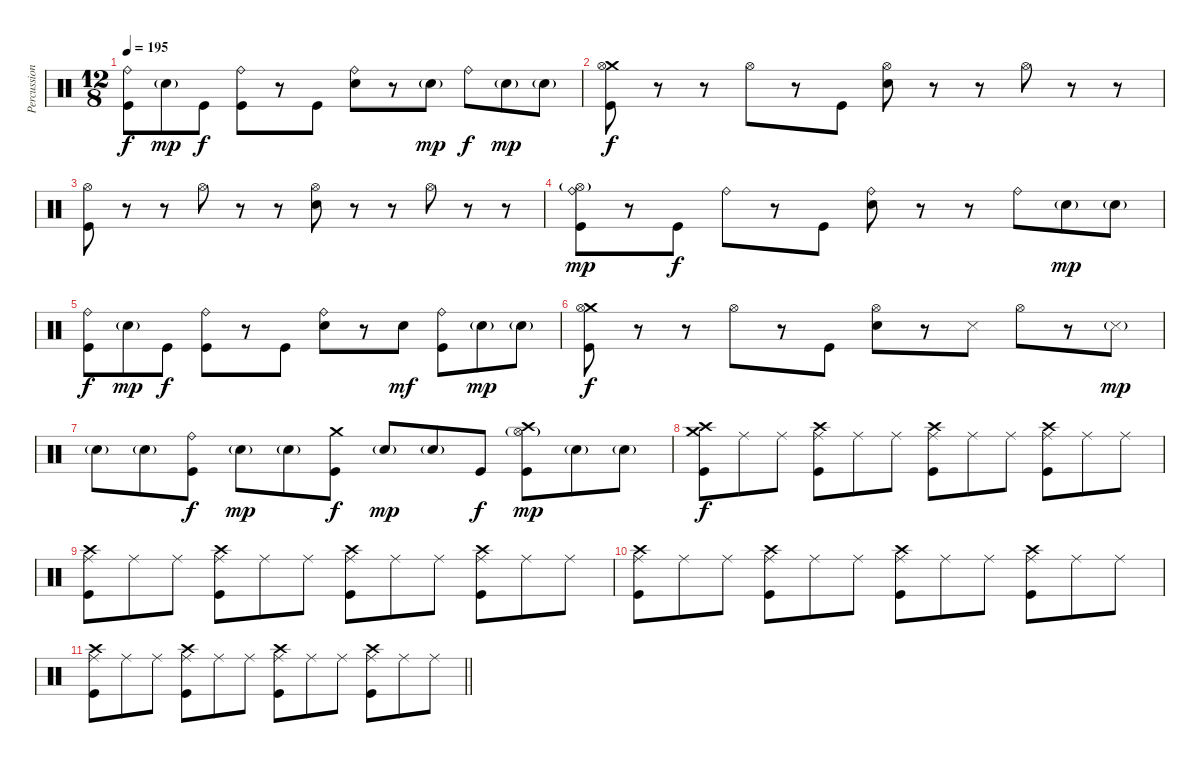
\track ("Percussion" "Percussion") {instrument percussion}
\staff {score}
\articulation defaults
\ts (12 8)
\tempo 195
\clef neutral
\ks c
("Ride (bell)" "Kick (hit)").8{dy f} "Snare (hit) 2"{g}.8{dy mp} "Kick (hit)".8{dy f} ("Ride (bell)" "Kick (hit)").8 r.8 "Kick (hit)".8 ("Ride (bell)" "Electric Snare (hit)").8 r.8 "Snare (hit) 2"{g}.8{dy mp} "Ride (bell)".8{dy f} "Snare (hit) 2"{g}.8{dy mp} "Snare (hit) 2"{g}.8 |
("Crash medium (hit)" "Hi-Hat (open)" "Kick (hit)").8{dy f} r.8 r.8 "Hi-Hat (open)".8 r.8 "Kick (hit)".8 ("Hi-Hat (open)" "Electric Snare (hit)").8 r.8 r.8 "Hi-Hat (open)".8 r.8 r.8 |
("Hi-Hat (open)" "Kick (hit)").8 r.8 r.8 "Hi-Hat (open)".8 r.8 r.8 ("Hi-Hat (open)" "Electric Snare (hit)").8 r.8 r.8 "Hi-Hat (open)".8 r.8 r.8 |
("Ride (bell)" "Hi-Hat (open)"{g} "Kick (hit)").8{dy mp} r.8 "Kick (hit)".8{dy f} "Ride (bell)".8 r.8 "Kick (hit)".8 ("Ride (bell)" "Electric Snare (hit)").8 r.8 r.8 "Ride (bell)".8 "Snare (hit) 2"{g}.8{dy mp} "Snare (hit) 2"{g}.8 |
("Ride (bell)" "Kick (hit)").8{dy f} "Snare (hit) 2"{g}.8{dy mp} "Kick (hit)".8{dy f} ("Ride (bell)" "Kick (hit)").8 r.8 "Kick (hit)".8 ("Ride (bell)" "Electric Snare (hit)").8 r.8 "Snare (hit) 2".8{dy mf} ("Ride (bell)" "Kick (hit)").8 "Snare (hit) 2"{g}.8{dy mp} "Snare (hit) 2"{g}.8 |
("Crash medium (hit)" "Hi-Hat (open)" "Kick (hit)").8{dy f} r.8 r.8 "Hi-Hat (open)".8 r.8 "Kick (hit)".8 ("Hi-Hat (open)" "Electric Snare (hit)").8 r.8 "Snare (side stick) 3".8 "Hi-Hat (open)".8 r.8 "Snare (side stick) 3"{g}.8{dy mp} |
"Electric Snare (hit)"{g}.8 "Electric Snare (hit)"{g}.8 ("Ride (bell)" "Kick (hit)").8{dy f} "Electric Snare (hit)"{g}.8{dy mp} "Electric Snare (hit)"{g}.8 ("Crash medium (hit)" "Kick (hit)").8{dy f} "Electric Snare (hit)"{g}.8{dy mp} "Electric Snare (hit)"{g}.8 "Kick (hit)".8{dy f} ("Crash high (hit)" "Hi-Hat (open)"{g} "Kick (hit)").8{dy mp} "Electric Snare (hit)"{g}.8 "Electric Snare (hit)"{g}.8 |
("Crash high (hit)" "Crash medium (hit)" "Kick (hit)").8{dy f} "Ride (middle)".8 "Ride (middle)".8 ("Crash high (hit)" "Ride (middle)" "Kick (hit)").8 "Ride (middle)".8 "Ride (middle)".8 ("Crash high (hit)" "Ride (middle)" "Kick (hit)").8 "Ride (middle)".8 "Ride (middle)".8 ("Crash high (hit)" "Ride (middle)" "Kick (hit)").8 "Ride (middle)".8 "Ride (middle)".8 |
("Crash high (hit)" "Ride (middle)" "Kick (hit)").8 "Ride (middle)".8 "Ride (middle)".8 ("Crash high (hit)" "Ride (middle)" "Kick (hit)").8 "Ride (middle)".8 "Ride (middle)".8 ("Crash high (hit)" "Ride (middle)" "Kick (hit)").8 "Ride (middle)".8 "Ride (middle)".8 ("Crash high (hit)" "Ride (middle)" "Kick (hit)").8 "Ride (middle)".8 "Ride (middle)".8 |
("Crash high (hit)" "Ride (middle)" "Kick (hit)").8 "Ride (middle)".8 "Ride (middle)".8 ("Crash high (hit)" "Ride (middle)" "Kick (hit)").8 "Ride (middle)".8 "Ride (middle)".8 ("Crash high (hit)" "Ride (middle)" "Kick (hit)").8 "Ride (middle)".8 "Ride (middle)".8 ("Crash high (hit)" "Ride (middle)" "Kick (hit)").8 "Ride (middle)".8 "Ride (middle)".8 |
\barLineRight lightlight
("Crash high (hit)" "Ride (middle)" "Kick (hit)").8 "Ride (middle)".8 "Ride (middle)".8 ("Crash high (hit)" "Ride (middle)" "Kick (hit)").8 "Ride (middle)".8 "Ride (middle)".8 ("Crash high (hit)" "Ride (middle)" "Kick (hit)").8 "Ride (middle)".8 "Ride (middle)".8 ("Crash high (hit)" "Ride (middle)" "Kick (hit)").8 "Ride (middle)".8 "Ride (middle)".8
